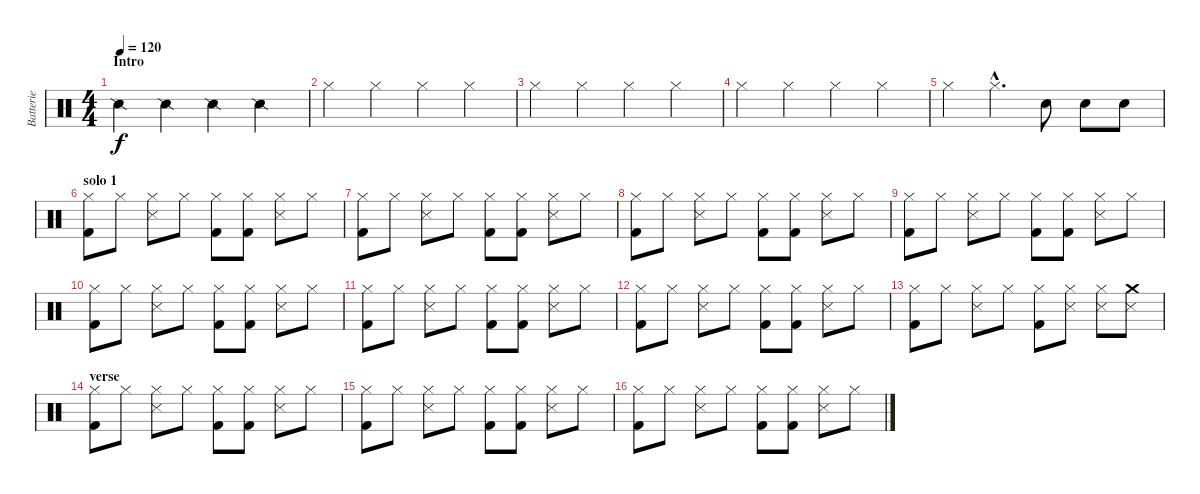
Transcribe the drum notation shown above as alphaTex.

\track ("Batterie" "Batterie") {instrument percussion}
\staff {score}
\articulation defaults
\ts (4 4)
\section ("" "Intro")
\tempo 120
\clef neutral
\ks c "Snare (side stick) 2".4{dy f} "Snare (side stick) 2".4 "Snare (side stick) 2".4 "Snare (side stick) 2".4
|
"Hi-Hat (closed)".4 "Hi-Hat (closed)".4 "Hi-Hat (closed)".4 "Hi-Hat (closed)".4 |
"Hi-Hat (closed)".4 "Hi-Hat (closed)".4 "Hi-Hat (closed)".4 "Hi-Hat (closed)".4 |
"Hi-Hat (closed)".4 "Hi-Hat (closed)".4 "Hi-Hat (closed)".4 "Hi-Hat (closed)".4 |
"Hi-Hat (closed)".4 "Hi-Hat (closed)"{hac}.4{d} "Snare (hit) 2".8 "Snare (hit) 2".8 "Snare (hit) 2".8 |
\section ("" "solo 1")
("Hi-Hat (closed)" "Kick (hit) 2").8 "Hi-Hat (closed)".8 ("Hi-Hat (closed)" "Snare (side stick) 3").8 "Hi-Hat (closed)".8 ("Hi-Hat (closed)" "Kick (hit) 2").8 ("Hi-Hat (closed)" "Kick (hit) 2").8 ("Hi-Hat (closed)" "Snare (side stick) 3").8 "Hi-Hat (closed)".8 |
("Hi-Hat (closed)" "Kick (hit) 2").8 "Hi-Hat (closed)".8 ("Hi-Hat (closed)" "Snare (side stick) 3").8 "Hi-Hat (closed)".8 ("Hi-Hat (closed)" "Kick (hit) 2").8 ("Hi-Hat (closed)" "Kick (hit) 2").8 ("Hi-Hat (closed)" "Snare (side stick) 3").8 "Hi-Hat (closed)".8 |
("Hi-Hat (closed)" "Kick (hit) 2").8 "Hi-Hat (closed)".8 ("Hi-Hat (closed)" "Snare (side stick) 3").8 "Hi-Hat (closed)".8 ("Hi-Hat (closed)" "Kick (hit) 2").8 ("Hi-Hat (closed)" "Kick (hit) 2").8 ("Hi-Hat (closed)" "Snare (side stick) 3").8 "Hi-Hat (closed)".8 |
("Hi-Hat (closed)" "Kick (hit) 2").8 "Hi-Hat (closed)".8 ("Hi-Hat (closed)" "Snare (side stick) 3").8 "Hi-Hat (closed)".8 ("Hi-Hat (closed)" "Kick (hit) 2").8 ("Hi-Hat (closed)" "Kick (hit) 2").8 ("Hi-Hat (closed)" "Snare (side stick) 3").8 "Hi-Hat (closed)".8 |
("Hi-Hat (closed)" "Kick (hit) 2").8 "Hi-Hat (closed)".8 ("Hi-Hat (closed)" "Snare (side stick) 3").8 "Hi-Hat (closed)".8 ("Hi-Hat (closed)" "Kick (hit) 2").8 ("Hi-Hat (closed)" "Kick (hit) 2").8 ("Hi-Hat (closed)" "Snare (side stick) 3").8 "Hi-Hat (closed)".8 |
("Hi-Hat (closed)" "Kick (hit) 2").8 "Hi-Hat (closed)".8 ("Hi-Hat (closed)" "Snare (side stick) 3").8 "Hi-Hat (closed)".8 ("Hi-Hat (closed)" "Kick (hit) 2").8 ("Hi-Hat (closed)" "Kick (hit) 2").8 ("Hi-Hat (closed)" "Snare (side stick) 3").8 "Hi-Hat (closed)".8 |
("Hi-Hat (closed)" "Kick (hit) 2").8 "Hi-Hat (closed)".8 ("Hi-Hat (closed)" "Snare (side stick) 3").8 "Hi-Hat (closed)".8 ("Hi-Hat (closed)" "Kick (hit) 2").8 ("Hi-Hat (closed)" "Kick (hit) 2").8 ("Hi-Hat (closed)" "Snare (side stick) 3").8 "Hi-Hat (closed)".8 |
("Hi-Hat (closed)" "Kick (hit) 2").8 "Hi-Hat (closed)".8 ("Hi-Hat (closed)" "Snare (side stick) 3").8 "Hi-Hat (closed)".8 ("Hi-Hat (closed)" "Kick (hit) 2").8 ("Hi-Hat (closed)" "Snare (side stick) 3").8 ("Hi-Hat (closed)" "Snare (side stick) 3").8 ("Crash medium (hit)" "Snare (side stick) 3").8 |
\section ("" "verse")
("Hi-Hat (closed)" "Kick (hit) 2").8 "Hi-Hat (closed)".8 ("Hi-Hat (closed)" "Snare (side stick) 3").8 "Hi-Hat (closed)".8 ("Hi-Hat (closed)" "Kick (hit) 2").8 ("Hi-Hat (closed)" "Kick (hit) 2").8 ("Hi-Hat (closed)" "Snare (side stick) 3").8 "Hi-Hat (closed)".8 |
("Hi-Hat (closed)" "Kick (hit) 2").8 "Hi-Hat (closed)".8 ("Hi-Hat (closed)" "Snare (side stick) 3").8 "Hi-Hat (closed)".8 ("Hi-Hat (closed)" "Kick (hit) 2").8 ("Hi-Hat (closed)" "Kick (hit) 2").8 ("Hi-Hat (closed)" "Snare (side stick) 3").8 "Hi-Hat (closed)".8 |
("Hi-Hat (closed)" "Kick (hit) 2").8 "Hi-Hat (closed)".8 ("Hi-Hat (closed)" "Snare (side stick) 3").8 "Hi-Hat (closed)".8 ("Hi-Hat (closed)" "Kick (hit) 2").8 ("Hi-Hat (closed)" "Kick (hit) 2").8 ("Hi-Hat (closed)" "Snare (side stick) 3").8 "Hi-Hat (closed)".8
